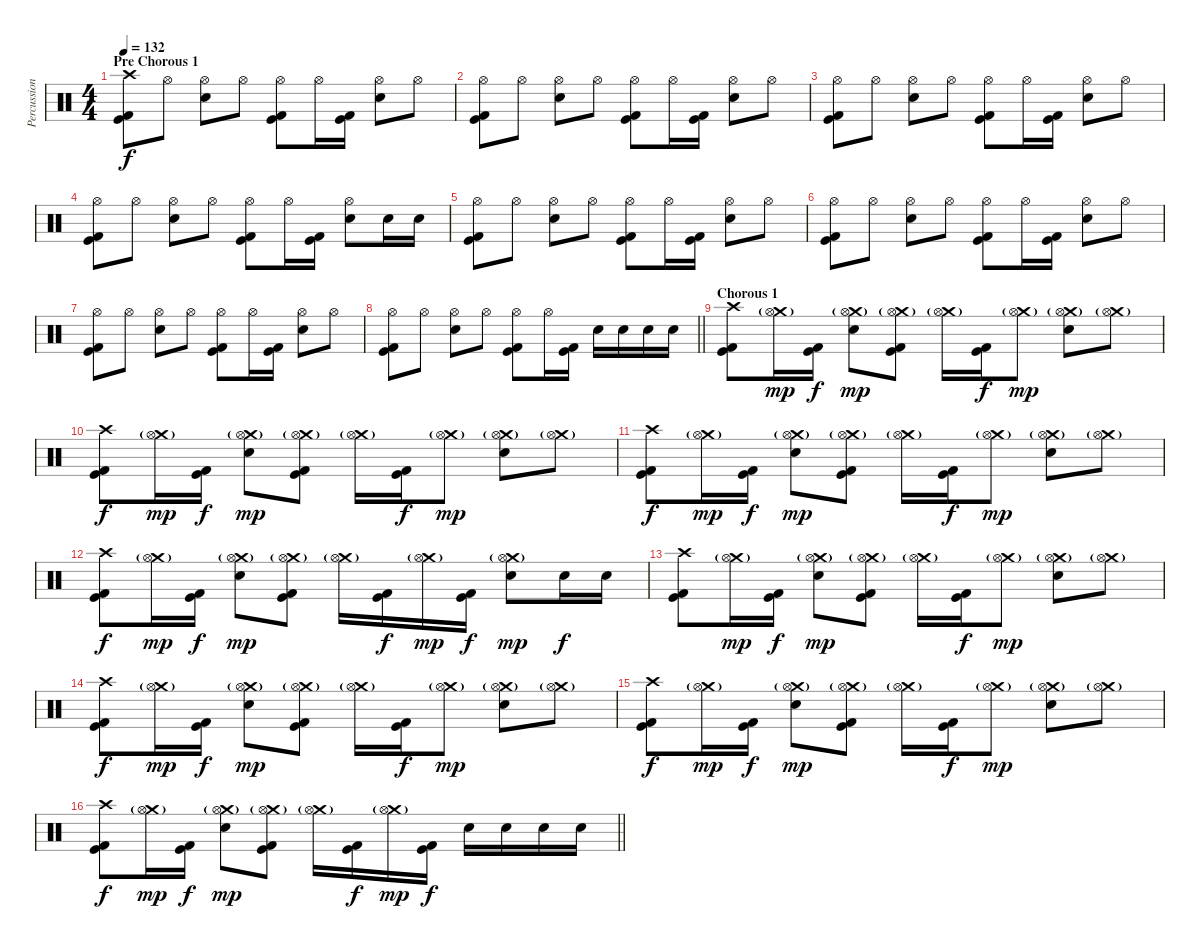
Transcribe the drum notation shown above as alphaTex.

\track ("Percussion" "Percussion") {instrument percussion}
\staff {score}
\articulation defaults
\ts (4 4)
\section ("" "Pre Chorous 1")
\tempo 132
\clef neutral
\ks c
("Crash high (hit)" "Kick (hit)" "Kick (hit) 2").8{dy f} "Hi-Hat (open)".8 ("Hi-Hat (open)" "Electric Snare (hit)").8 "Hi-Hat (open)".8 ("Hi-Hat (open)" "Kick (hit)" "Kick (hit) 2").8 "Hi-Hat (open)".16 ("Kick (hit)" "Kick (hit) 2").16 ("Hi-Hat (open)" "Electric Snare (hit)").8 "Hi-Hat (open)".8 |
("Hi-Hat (open)" "Kick (hit)" "Kick (hit) 2").8 "Hi-Hat (open)".8 ("Hi-Hat (open)" "Electric Snare (hit)").8 "Hi-Hat (open)".8 ("Hi-Hat (open)" "Kick (hit)" "Kick (hit) 2").8 "Hi-Hat (open)".16 ("Kick (hit)" "Kick (hit) 2").16 ("Hi-Hat (open)" "Electric Snare (hit)").8 "Hi-Hat (open)".8 |
("Hi-Hat (open)" "Kick (hit)" "Kick (hit) 2").8 "Hi-Hat (open)".8 ("Hi-Hat (open)" "Electric Snare (hit)").8 "Hi-Hat (open)".8 ("Hi-Hat (open)" "Kick (hit)" "Kick (hit) 2").8 "Hi-Hat (open)".16 ("Kick (hit)" "Kick (hit) 2").16 ("Hi-Hat (open)" "Electric Snare (hit)").8 "Hi-Hat (open)".8 |
("Hi-Hat (open)" "Kick (hit)" "Kick (hit) 2").8 "Hi-Hat (open)".8 ("Hi-Hat (open)" "Electric Snare (hit)").8 "Hi-Hat (open)".8 ("Hi-Hat (open)" "Kick (hit)" "Kick (hit) 2").8 "Hi-Hat (open)".16 ("Kick (hit)" "Kick (hit) 2").16 ("Hi-Hat (open)" "Electric Snare (hit)").8 "Electric Snare (hit)".16 "Electric Snare (hit)".16 |
("Hi-Hat (open)" "Kick (hit)" "Kick (hit) 2").8 "Hi-Hat (open)".8 ("Hi-Hat (open)" "Electric Snare (hit)").8 "Hi-Hat (open)".8 ("Hi-Hat (open)" "Kick (hit)" "Kick (hit) 2").8 "Hi-Hat (open)".16 ("Kick (hit)" "Kick (hit) 2").16 ("Hi-Hat (open)" "Electric Snare (hit)").8 "Hi-Hat (open)".8 |
("Hi-Hat (open)" "Kick (hit)" "Kick (hit) 2").8 "Hi-Hat (open)".8 ("Hi-Hat (open)" "Electric Snare (hit)").8 "Hi-Hat (open)".8 ("Hi-Hat (open)" "Kick (hit)" "Kick (hit) 2").8 "Hi-Hat (open)".16 ("Kick (hit)" "Kick (hit) 2").16 ("Hi-Hat (open)" "Electric Snare (hit)").8 "Hi-Hat (open)".8 |
("Hi-Hat (open)" "Kick (hit)" "Kick (hit) 2").8 "Hi-Hat (open)".8 ("Hi-Hat (open)" "Electric Snare (hit)").8 "Hi-Hat (open)".8 ("Hi-Hat (open)" "Kick (hit)" "Kick (hit) 2").8 "Hi-Hat (open)".16 ("Kick (hit)" "Kick (hit) 2").16 ("Hi-Hat (open)" "Electric Snare (hit)").8 "Hi-Hat (open)".8 |
\barLineRight lightlight
("Hi-Hat (open)" "Kick (hit)" "Kick (hit) 2").8 "Hi-Hat (open)".8 ("Hi-Hat (open)" "Electric Snare (hit)").8 "Hi-Hat (open)".8 ("Hi-Hat (open)" "Kick (hit)" "Kick (hit) 2").8 "Hi-Hat (open)".16 ("Kick (hit)" "Kick (hit) 2").16 "Electric Snare (hit)".16 "Electric Snare (hit)".16 "Electric Snare (hit)".16 "Electric Snare (hit)".16 |
\section ("" "Chorous 1")
("Crash high (hit)" "Kick (hit)" "Kick (hit) 2").8 ("Crash medium (hit)"{g} "Hi-Hat (open)").16{dy mp} ("Kick (hit)" "Kick (hit) 2").16{dy f} ("Crash medium (hit)"{g} "Hi-Hat (open)" "Electric Snare (hit)").8{dy mp} ("Crash medium (hit)"{g} "Hi-Hat (open)" "Kick (hit)" "Kick (hit) 2").8 ("Crash medium (hit)"{g} "Hi-Hat (open)").16 ("Kick (hit)" "Kick (hit) 2").16{dy f} ("Crash medium (hit)"{g} "Hi-Hat (open)").8{dy mp} ("Crash medium (hit)"{g} "Hi-Hat (open)" "Electric Snare (hit)").8 ("Crash medium (hit)"{g} "Hi-Hat (open)").8 |
("Crash high (hit)" "Kick (hit)" "Kick (hit) 2").8{dy f} ("Crash medium (hit)"{g} "Hi-Hat (open)").16{dy mp} ("Kick (hit)" "Kick (hit) 2").16{dy f} ("Crash medium (hit)"{g} "Hi-Hat (open)" "Electric Snare (hit)").8{dy mp} ("Crash medium (hit)"{g} "Hi-Hat (open)" "Kick (hit)" "Kick (hit) 2").8 ("Crash medium (hit)"{g} "Hi-Hat (open)").16 ("Kick (hit)" "Kick (hit) 2").16{dy f} ("Crash medium (hit)"{g} "Hi-Hat (open)").8{dy mp} ("Crash medium (hit)"{g} "Hi-Hat (open)" "Electric Snare (hit)").8 ("Crash medium (hit)"{g} "Hi-Hat (open)").8 |
("Crash high (hit)" "Kick (hit)" "Kick (hit) 2").8{dy f} ("Crash medium (hit)"{g} "Hi-Hat (open)").16{dy mp} ("Kick (hit)" "Kick (hit) 2").16{dy f} ("Crash medium (hit)"{g} "Hi-Hat (open)" "Electric Snare (hit)").8{dy mp} ("Crash medium (hit)"{g} "Hi-Hat (open)" "Kick (hit)" "Kick (hit) 2").8 ("Crash medium (hit)"{g} "Hi-Hat (open)").16 ("Kick (hit)" "Kick (hit) 2").16{dy f} ("Crash medium (hit)"{g} "Hi-Hat (open)").8{dy mp} ("Crash medium (hit)"{g} "Hi-Hat (open)" "Electric Snare (hit)").8 ("Crash medium (hit)"{g} "Hi-Hat (open)").8 |
("Crash high (hit)" "Kick (hit)" "Kick (hit) 2").8{dy f} ("Crash medium (hit)"{g} "Hi-Hat (open)").16{dy mp} ("Kick (hit)" "Kick (hit) 2").16{dy f} ("Crash medium (hit)"{g} "Hi-Hat (open)" "Electric Snare (hit)").8{dy mp} ("Crash medium (hit)"{g} "Hi-Hat (open)" "Kick (hit)" "Kick (hit) 2").8 ("Crash medium (hit)"{g} "Hi-Hat (open)").16 ("Kick (hit)" "Kick (hit) 2").16{dy f} ("Crash medium (hit)"{g} "Hi-Hat (open)").16{dy mp} ("Kick (hit)" "Kick (hit) 2").16{dy f} ("Crash medium (hit)"{g} "Hi-Hat (open)" "Electric Snare (hit)").8{dy mp} "Electric Snare (hit)".16{dy f} "Electric Snare (hit)".16 |
("Crash high (hit)" "Kick (hit)" "Kick (hit) 2").8 ("Crash medium (hit)"{g} "Hi-Hat (open)").16{dy mp} ("Kick (hit)" "Kick (hit) 2").16{dy f} ("Crash medium (hit)"{g} "Hi-Hat (open)" "Electric Snare (hit)").8{dy mp} ("Crash medium (hit)"{g} "Hi-Hat (open)" "Kick (hit)" "Kick (hit) 2").8 ("Crash medium (hit)"{g} "Hi-Hat (open)").16 ("Kick (hit)" "Kick (hit) 2").16{dy f} ("Crash medium (hit)"{g} "Hi-Hat (open)").8{dy mp} ("Crash medium (hit)"{g} "Hi-Hat (open)" "Electric Snare (hit)").8 ("Crash medium (hit)"{g} "Hi-Hat (open)").8 |
("Crash high (hit)" "Kick (hit)" "Kick (hit) 2").8{dy f} ("Crash medium (hit)"{g} "Hi-Hat (open)").16{dy mp} ("Kick (hit)" "Kick (hit) 2").16{dy f} ("Crash medium (hit)"{g} "Hi-Hat (open)" "Electric Snare (hit)").8{dy mp} ("Crash medium (hit)"{g} "Hi-Hat (open)" "Kick (hit)" "Kick (hit) 2").8 ("Crash medium (hit)"{g} "Hi-Hat (open)").16 ("Kick (hit)" "Kick (hit) 2").16{dy f} ("Crash medium (hit)"{g} "Hi-Hat (open)").8{dy mp} ("Crash medium (hit)"{g} "Hi-Hat (open)" "Electric Snare (hit)").8 ("Crash medium (hit)"{g} "Hi-Hat (open)").8 |
("Crash high (hit)" "Kick (hit)" "Kick (hit) 2").8{dy f} ("Crash medium (hit)"{g} "Hi-Hat (open)").16{dy mp} ("Kick (hit)" "Kick (hit) 2").16{dy f} ("Crash medium (hit)"{g} "Hi-Hat (open)" "Electric Snare (hit)").8{dy mp} ("Crash medium (hit)"{g} "Hi-Hat (open)" "Kick (hit)" "Kick (hit) 2").8 ("Crash medium (hit)"{g} "Hi-Hat (open)").16 ("Kick (hit)" "Kick (hit) 2").16{dy f} ("Crash medium (hit)"{g} "Hi-Hat (open)").8{dy mp} ("Crash medium (hit)"{g} "Hi-Hat (open)" "Electric Snare (hit)").8 ("Crash medium (hit)"{g} "Hi-Hat (open)").8 |
\barLineRight lightlight
("Crash high (hit)" "Kick (hit)" "Kick (hit) 2").8{dy f} ("Crash medium (hit)"{g} "Hi-Hat (open)").16{dy mp} ("Kick (hit)" "Kick (hit) 2").16{dy f} ("Crash medium (hit)"{g} "Hi-Hat (open)" "Electric Snare (hit)").8{dy mp} ("Crash medium (hit)"{g} "Hi-Hat (open)" "Kick (hit)" "Kick (hit) 2").8 ("Crash medium (hit)"{g} "Hi-Hat (open)").16 ("Kick (hit)" "Kick (hit) 2").16{dy f} ("Crash medium (hit)"{g} "Hi-Hat (open)").16{dy mp} ("Kick (hit)" "Kick (hit) 2").16{dy f} "Electric Snare (hit)".16 "Electric Snare (hit)".16 "Electric Snare (hit)".16 "Electric Snare (hit)".16
